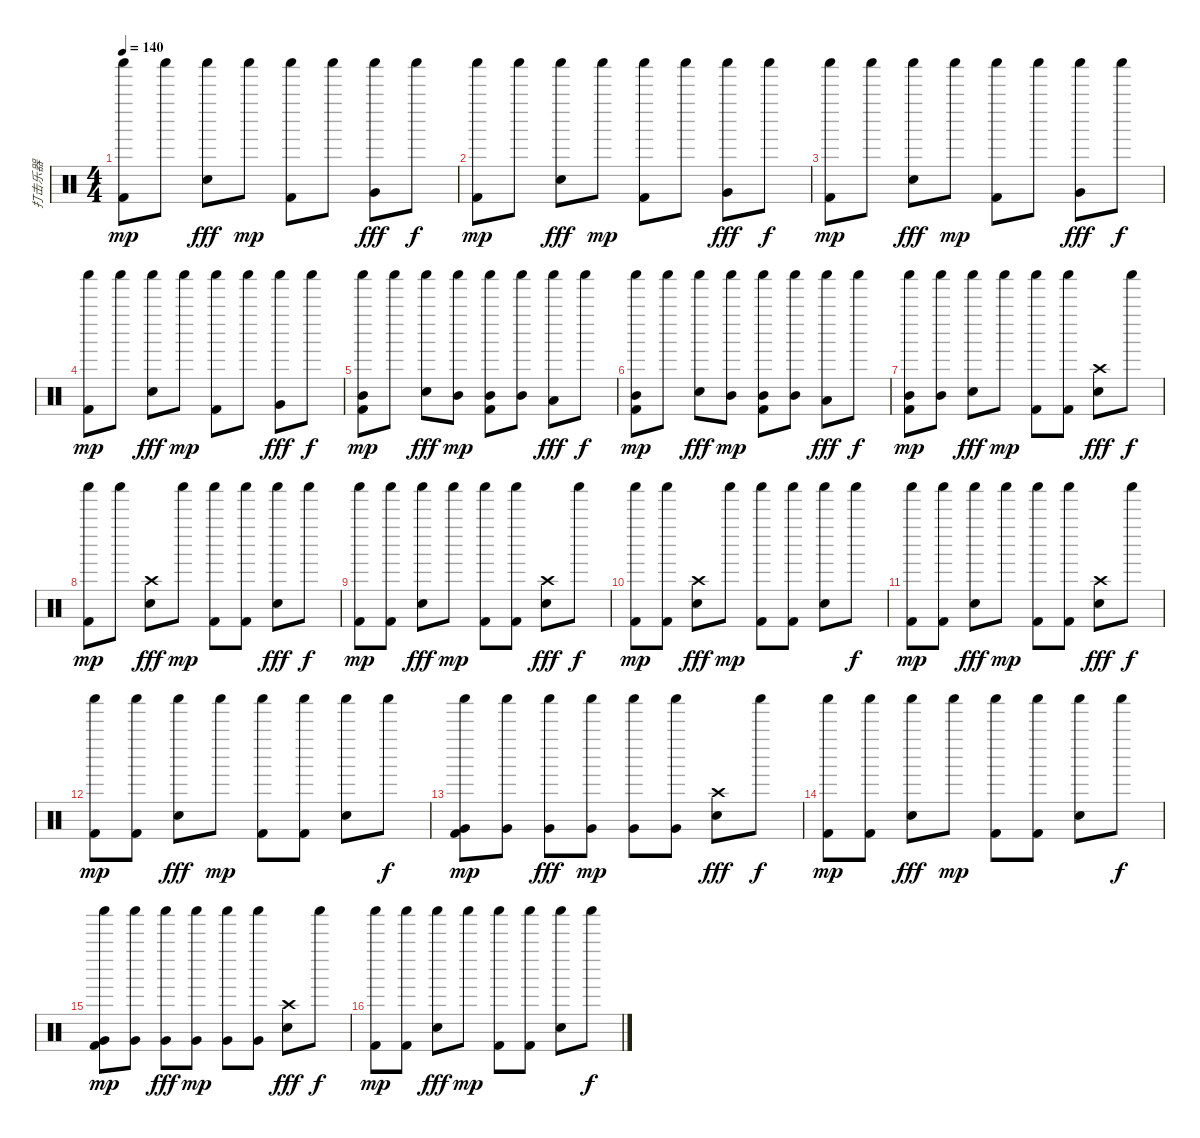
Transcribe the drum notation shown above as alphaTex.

\track ("打击乐器" "打击乐器") {instrument percussion}
\staff {score}
\articulation defaults
\ts (4 4)
\tempo 140
\clef neutral
\ks c
("Shaker (hit)" "Kick (hit) 2").8{dy mp} "Shaker (hit)".8 ("Shaker (hit)" "Electric Snare (hit)").8{dy fff} "Shaker (hit)".8{dy mp} ("Shaker (hit)" "Kick (hit) 2").8 "Shaker (hit)".8 ("Shaker (hit)" "Very Low Tom (hit)").8{dy fff} "Shaker (hit)".8{dy f} |
("Shaker (hit)" "Kick (hit) 2").8{dy mp} "Shaker (hit)".8 ("Shaker (hit)" "Electric Snare (hit)").8{dy fff} "Shaker (hit)".8{dy mp} ("Shaker (hit)" "Kick (hit) 2").8 "Shaker (hit)".8 ("Shaker (hit)" "Very Low Tom (hit)").8{dy fff} "Shaker (hit)".8{dy f} |
("Shaker (hit)" "Kick (hit) 2").8{dy mp} "Shaker (hit)".8 ("Shaker (hit)" "Electric Snare (hit)").8{dy fff} "Shaker (hit)".8{dy mp} ("Shaker (hit)" "Kick (hit) 2").8 "Shaker (hit)".8 ("Shaker (hit)" "Very Low Tom (hit)").8{dy fff} "Shaker (hit)".8{dy f} |
("Shaker (hit)" "Kick (hit) 2").8{dy mp} "Shaker (hit)".8 ("Shaker (hit)" "Electric Snare (hit)").8{dy fff} "Shaker (hit)".8{dy mp} ("Shaker (hit)" "Kick (hit) 2").8 "Shaker (hit)".8 ("Shaker (hit)" "Very Low Tom (hit)").8{dy fff} "Shaker (hit)".8{dy f} |
("Shaker (hit)" "Mid Tom (hit)" "Kick (hit) 2").8{dy mp} "Shaker (hit)".8 ("Shaker (hit)" "Electric Snare (hit)").8{dy fff} ("Shaker (hit)" "Mid Tom (hit)").8{dy mp} ("Shaker (hit)" "Mid Tom (hit)" "Kick (hit) 2").8 ("Shaker (hit)" "Mid Tom (hit)").8 ("Shaker (hit)" "Low Tom (hit)").8{dy fff} "Shaker (hit)".8{dy f} |
("Shaker (hit)" "Mid Tom (hit)" "Kick (hit) 2").8{dy mp} "Shaker (hit)".8 ("Shaker (hit)" "Electric Snare (hit)").8{dy fff} ("Shaker (hit)" "Mid Tom (hit)").8{dy mp} ("Shaker (hit)" "Mid Tom (hit)" "Kick (hit) 2").8 ("Shaker (hit)" "Mid Tom (hit)").8 ("Shaker (hit)" "Low Tom (hit)").8{dy fff} "Shaker (hit)".8{dy f} |
("Shaker (hit)" "Mid Tom (hit)" "Kick (hit) 2").8{dy mp} ("Shaker (hit)" "Mid Tom (hit)").8 ("Shaker (hit)" "Electric Snare (hit)").8{dy fff} "Shaker (hit)".8{dy mp} ("Shaker (hit)" "Kick (hit) 2").8 ("Shaker (hit)" "Kick (hit) 2").8 ("Crash high (hit)" "Electric Snare (hit)").8{dy fff} "Shaker (hit)".8{dy f} |
("Shaker (hit)" "Kick (hit) 2").8{dy mp} "Shaker (hit)".8 ("Crash high (hit)" "Electric Snare (hit)").8{dy fff} "Shaker (hit)".8{dy mp} ("Shaker (hit)" "Kick (hit) 2").8 ("Shaker (hit)" "Kick (hit) 2").8 ("Shaker (hit)" "Electric Snare (hit)").8{dy fff} "Shaker (hit)".8{dy f} |
("Shaker (hit)" "Kick (hit) 2").8{dy mp} ("Shaker (hit)" "Kick (hit) 2").8 ("Shaker (hit)" "Electric Snare (hit)").8{dy fff} "Shaker (hit)".8{dy mp} ("Shaker (hit)" "Kick (hit) 2").8 ("Shaker (hit)" "Kick (hit) 2").8 ("Crash high (hit)" "Electric Snare (hit)").8{dy fff} "Shaker (hit)".8{dy f} |
("Shaker (hit)" "Kick (hit) 2").8{dy mp} ("Shaker (hit)" "Kick (hit) 2").8 ("Crash high (hit)" "Electric Snare (hit)").8{dy fff} "Shaker (hit)".8{dy mp} ("Shaker (hit)" "Kick (hit) 2").8 ("Shaker (hit)" "Kick (hit) 2").8 ("Shaker (hit)" "Electric Snare (hit)").8 "Shaker (hit)".8{dy f} |
("Shaker (hit)" "Kick (hit) 2").8{dy mp} ("Shaker (hit)" "Kick (hit) 2").8 ("Shaker (hit)" "Electric Snare (hit)").8{dy fff} "Shaker (hit)".8{dy mp} ("Shaker (hit)" "Kick (hit) 2").8 ("Shaker (hit)" "Kick (hit) 2").8 ("Crash high (hit)" "Electric Snare (hit)").8{dy fff} "Shaker (hit)".8{dy f} |
("Shaker (hit)" "Kick (hit) 2").8{dy mp} ("Shaker (hit)" "Kick (hit) 2").8 ("Shaker (hit)" "Electric Snare (hit)").8{dy fff} "Shaker (hit)".8{dy mp} ("Shaker (hit)" "Kick (hit) 2").8 ("Shaker (hit)" "Kick (hit) 2").8 ("Shaker (hit)" "Electric Snare (hit)").8 "Shaker (hit)".8{dy f} |
("Shaker (hit)" "Very Low Tom (hit)" "Kick (hit) 2").8{dy mp} ("Shaker (hit)" "Very Low Tom (hit)").8 ("Shaker (hit)" "Very Low Tom (hit)").8{dy fff} ("Shaker (hit)" "Very Low Tom (hit)").8{dy mp} ("Shaker (hit)" "Very Low Tom (hit)").8 ("Shaker (hit)" "Very Low Tom (hit)").8 ("Crash high (hit)" "Electric Snare (hit)").8{dy fff} "Shaker (hit)".8{dy f} |
("Shaker (hit)" "Kick (hit) 2").8{dy mp} ("Shaker (hit)" "Kick (hit) 2").8 ("Shaker (hit)" "Electric Snare (hit)").8{dy fff} "Shaker (hit)".8{dy mp} ("Shaker (hit)" "Kick (hit) 2").8 ("Shaker (hit)" "Kick (hit) 2").8 ("Shaker (hit)" "Electric Snare (hit)").8 "Shaker (hit)".8{dy f} |
("Shaker (hit)" "Very Low Tom (hit)" "Kick (hit) 2").8{dy mp} ("Shaker (hit)" "Very Low Tom (hit)").8 ("Shaker (hit)" "Very Low Tom (hit)").8{dy fff} ("Shaker (hit)" "Very Low Tom (hit)").8{dy mp} ("Shaker (hit)" "Very Low Tom (hit)").8 ("Shaker (hit)" "Very Low Tom (hit)").8 ("Crash high (hit)" "Electric Snare (hit)").8{dy fff} "Shaker (hit)".8{dy f} |
("Shaker (hit)" "Kick (hit) 2").8{dy mp} ("Shaker (hit)" "Kick (hit) 2").8 ("Shaker (hit)" "Electric Snare (hit)").8{dy fff} "Shaker (hit)".8{dy mp} ("Shaker (hit)" "Kick (hit) 2").8 ("Shaker (hit)" "Kick (hit) 2").8 ("Shaker (hit)" "Electric Snare (hit)").8 "Shaker (hit)".8{dy f}
